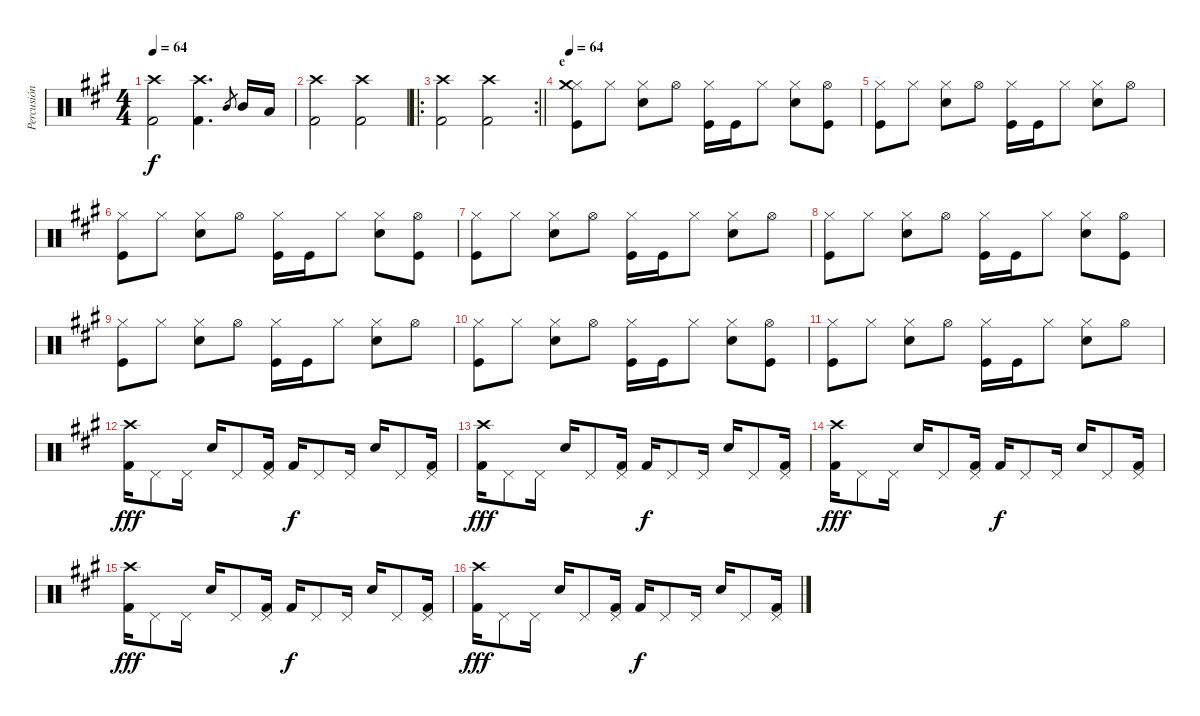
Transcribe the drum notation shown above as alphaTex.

\track ("Percusión" "Percusión") {instrument percussion}
\staff {score}
\articulation defaults
\ts (4 4)
\tempo 64
\clef neutral
\ks a
("Kick (hit) 2" "Crash high (hit)").2{dy f} ("Kick (hit) 2" "Crash high (hit)").4{d} "Mid Tom (hit)".8{gr} "Mid Tom (hit)".16 "Low Tom (hit)".16 |
("Kick (hit) 2" "Crash high (hit)").2 ("Kick (hit) 2" "Crash high (hit)").2 |
\ro
\rc 2
\barLineRight lightlight
("Kick (hit) 2" "Crash high (hit)").2 ("Kick (hit) 2" "Crash high (hit)").2 |
\section ("" "e")
\tempo 64
("Hi-Hat (closed)" "Kick (hit)" "Crash medium (hit)").8 "Hi-Hat (closed)".8 ("Hi-Hat (closed)" "Snare (hit) 2").8 "Hi-Hat (open)".8 ("Kick (hit)" "Hi-Hat (closed)").16 "Kick (hit)".16 "Hi-Hat (closed)".8 ("Hi-Hat (closed)" "Snare (hit) 2").8 ("Kick (hit)" "Hi-Hat (open)").8 |
("Hi-Hat (closed)" "Kick (hit)").8 "Hi-Hat (closed)".8 ("Hi-Hat (closed)" "Snare (hit) 2").8 "Hi-Hat (open)".8 ("Kick (hit)" "Hi-Hat (closed)").16 "Kick (hit)".16 "Hi-Hat (closed)".8 ("Hi-Hat (closed)" "Snare (hit) 2").8 "Hi-Hat (open)".8 |
("Hi-Hat (closed)" "Kick (hit)").8 "Hi-Hat (closed)".8 ("Hi-Hat (closed)" "Snare (hit) 2").8 "Hi-Hat (open)".8 ("Kick (hit)" "Hi-Hat (closed)").16 "Kick (hit)".16 "Hi-Hat (closed)".8 ("Hi-Hat (closed)" "Snare (hit) 2").8 ("Kick (hit)" "Hi-Hat (open)").8 |
("Hi-Hat (closed)" "Kick (hit)").8 "Hi-Hat (closed)".8 ("Hi-Hat (closed)" "Snare (hit) 2").8 "Hi-Hat (open)".8 ("Kick (hit)" "Hi-Hat (closed)").16 "Kick (hit)".16 "Hi-Hat (closed)".8 ("Hi-Hat (closed)" "Snare (hit) 2").8 "Hi-Hat (open)".8 |
("Hi-Hat (closed)" "Kick (hit)").8 "Hi-Hat (closed)".8 ("Hi-Hat (closed)" "Snare (hit) 2").8 "Hi-Hat (open)".8 ("Kick (hit)" "Hi-Hat (closed)").16 "Kick (hit)".16 "Hi-Hat (closed)".8 ("Hi-Hat (closed)" "Snare (hit) 2").8 ("Kick (hit)" "Hi-Hat (open)").8 |
("Hi-Hat (closed)" "Kick (hit)").8 "Hi-Hat (closed)".8 ("Hi-Hat (closed)" "Snare (hit) 2").8 "Hi-Hat (open)".8 ("Kick (hit)" "Hi-Hat (closed)").16 "Kick (hit)".16 "Hi-Hat (closed)".8 ("Hi-Hat (closed)" "Snare (hit) 2").8 "Hi-Hat (open)".8 |
("Hi-Hat (closed)" "Kick (hit)").8 "Hi-Hat (closed)".8 ("Hi-Hat (closed)" "Snare (hit) 2").8 "Hi-Hat (open)".8 ("Kick (hit)" "Hi-Hat (closed)").16 "Kick (hit)".16 "Hi-Hat (closed)".8 ("Hi-Hat (closed)" "Snare (hit) 2").8 ("Kick (hit)" "Hi-Hat (open)").8 |
("Hi-Hat (closed)" "Kick (hit)").8 "Hi-Hat (closed)".8 ("Hi-Hat (closed)" "Snare (hit) 2").8 "Hi-Hat (open)".8 ("Kick (hit)" "Hi-Hat (closed)").16 "Kick (hit)".16 "Hi-Hat (closed)".8 ("Hi-Hat (closed)" "Snare (hit) 2").8 "Hi-Hat (open)".8 |
("Crash high (hit)" "Kick (hit) 2").16{dy fff} "Pedal Hi-Hat (hit)".8 "Pedal Hi-Hat (hit)".16 "Electric Snare (hit)".16 "Pedal Hi-Hat (hit)".8 ("Pedal Hi-Hat (hit)" "Kick (hit) 2").16 "Kick (hit) 2".16{dy f} "Pedal Hi-Hat (hit)".8 "Pedal Hi-Hat (hit)".16 "Electric Snare (hit)".16 "Pedal Hi-Hat (hit)".8 ("Pedal Hi-Hat (hit)" "Kick (hit) 2").16 |
("Crash high (hit)" "Kick (hit) 2").16{dy fff} "Pedal Hi-Hat (hit)".8 "Pedal Hi-Hat (hit)".16 "Electric Snare (hit)".16 "Pedal Hi-Hat (hit)".8 ("Pedal Hi-Hat (hit)" "Kick (hit) 2").16 "Kick (hit) 2".16{dy f} "Pedal Hi-Hat (hit)".8 "Pedal Hi-Hat (hit)".16 "Electric Snare (hit)".16 "Pedal Hi-Hat (hit)".8 ("Pedal Hi-Hat (hit)" "Kick (hit) 2").16 |
("Crash high (hit)" "Kick (hit) 2").16{dy fff} "Pedal Hi-Hat (hit)".8 "Pedal Hi-Hat (hit)".16 "Electric Snare (hit)".16 "Pedal Hi-Hat (hit)".8 ("Pedal Hi-Hat (hit)" "Kick (hit) 2").16 "Kick (hit) 2".16{dy f} "Pedal Hi-Hat (hit)".8 "Pedal Hi-Hat (hit)".16 "Electric Snare (hit)".16 "Pedal Hi-Hat (hit)".8 ("Pedal Hi-Hat (hit)" "Kick (hit) 2").16 |
("Crash high (hit)" "Kick (hit) 2").16{dy fff} "Pedal Hi-Hat (hit)".8 "Pedal Hi-Hat (hit)".16 "Electric Snare (hit)".16 "Pedal Hi-Hat (hit)".8 ("Pedal Hi-Hat (hit)" "Kick (hit) 2").16 "Kick (hit) 2".16{dy f} "Pedal Hi-Hat (hit)".8 "Pedal Hi-Hat (hit)".16 "Electric Snare (hit)".16 "Pedal Hi-Hat (hit)".8 ("Pedal Hi-Hat (hit)" "Kick (hit) 2").16 |
("Crash high (hit)" "Kick (hit) 2").16{dy fff} "Pedal Hi-Hat (hit)".8 "Pedal Hi-Hat (hit)".16 "Electric Snare (hit)".16 "Pedal Hi-Hat (hit)".8 ("Pedal Hi-Hat (hit)" "Kick (hit) 2").16 "Kick (hit) 2".16{dy f} "Pedal Hi-Hat (hit)".8 "Pedal Hi-Hat (hit)".16 "Electric Snare (hit)".16 "Pedal Hi-Hat (hit)".8 ("Pedal Hi-Hat (hit)" "Kick (hit) 2").16
